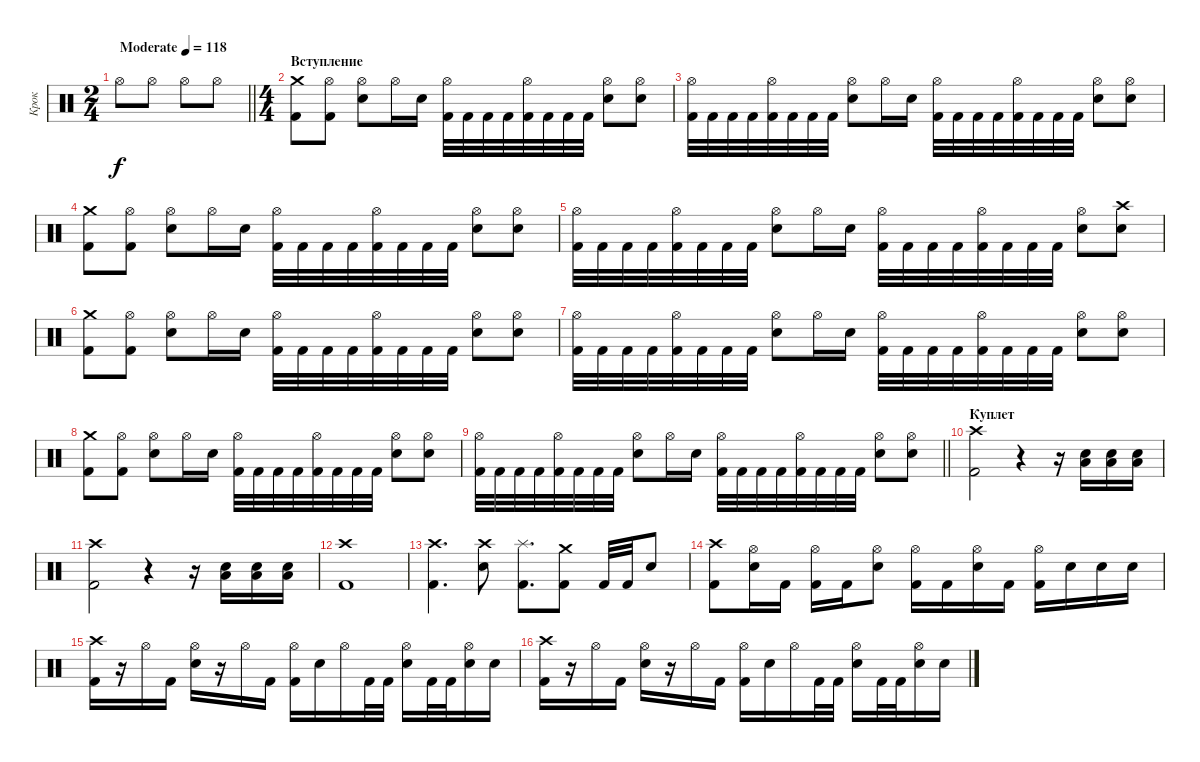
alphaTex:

\track ("Крок" "Крок") {instrument percussion}
\staff {score}
\articulation defaults
\ts (2 4)
\tempo (118 "Moderate")
\clef neutral
\barLineRight lightlight
\ks c "Hi-Hat (open)".8{dy f} "Hi-Hat (open)".8 "Hi-Hat (open)".8 "Hi-Hat (open)".8
|
\ts (4 4)
\section ("" "Вступление")
("Kick (hit) 2" "Crash medium (hit)").8 ("Kick (hit) 2" "Hi-Hat (open)").8 ("Electric Snare (hit)" "Hi-Hat (open)").8 "Hi-Hat (open)".16 "Electric Snare (hit)".16 ("Kick (hit) 2" "Hi-Hat (open)").32 "Kick (hit) 2".32 "Kick (hit) 2".32 "Kick (hit) 2".32 ("Kick (hit) 2" "Hi-Hat (open)").32 "Kick (hit) 2".32 "Kick (hit) 2".32 "Kick (hit) 2".32 ("Electric Snare (hit)" "Hi-Hat (open)").8 ("Electric Snare (hit)" "Hi-Hat (open)").8 |
("Kick (hit) 2" "Hi-Hat (open)").32 "Kick (hit) 2".32 "Kick (hit) 2".32 "Kick (hit) 2".32 ("Kick (hit) 2" "Hi-Hat (open)").32 "Kick (hit) 2".32 "Kick (hit) 2".32 "Kick (hit) 2".32 ("Electric Snare (hit)" "Hi-Hat (open)").8 "Hi-Hat (open)".16 "Electric Snare (hit)".16 ("Kick (hit) 2" "Hi-Hat (open)").32 "Kick (hit) 2".32 "Kick (hit) 2".32 "Kick (hit) 2".32 ("Kick (hit) 2" "Hi-Hat (open)").32 "Kick (hit) 2".32 "Kick (hit) 2".32 "Kick (hit) 2".32 ("Electric Snare (hit)" "Hi-Hat (open)").8 ("Electric Snare (hit)" "Hi-Hat (open)").8 |
("Kick (hit) 2" "Crash medium (hit)").8 ("Kick (hit) 2" "Hi-Hat (open)").8 ("Electric Snare (hit)" "Hi-Hat (open)").8 "Hi-Hat (open)".16 "Electric Snare (hit)".16 ("Kick (hit) 2" "Hi-Hat (open)").32 "Kick (hit) 2".32 "Kick (hit) 2".32 "Kick (hit) 2".32 ("Kick (hit) 2" "Hi-Hat (open)").32 "Kick (hit) 2".32 "Kick (hit) 2".32 "Kick (hit) 2".32 ("Electric Snare (hit)" "Hi-Hat (open)").8 ("Electric Snare (hit)" "Hi-Hat (open)").8 |
("Kick (hit) 2" "Hi-Hat (open)").32 "Kick (hit) 2".32 "Kick (hit) 2".32 "Kick (hit) 2".32 ("Kick (hit) 2" "Hi-Hat (open)").32 "Kick (hit) 2".32 "Kick (hit) 2".32 "Kick (hit) 2".32 ("Electric Snare (hit)" "Hi-Hat (open)").8 "Hi-Hat (open)".16 "Electric Snare (hit)".16 ("Kick (hit) 2" "Hi-Hat (open)").32 "Kick (hit) 2".32 "Kick (hit) 2".32 "Kick (hit) 2".32 ("Kick (hit) 2" "Hi-Hat (open)").32 "Kick (hit) 2".32 "Kick (hit) 2".32 "Kick (hit) 2".32 ("Electric Snare (hit)" "Hi-Hat (open)").8 ("Electric Snare (hit)" "Crash high (hit)").8 |
("Kick (hit) 2" "Crash medium (hit)").8 ("Kick (hit) 2" "Hi-Hat (open)").8 ("Electric Snare (hit)" "Hi-Hat (open)").8 "Hi-Hat (open)".16 "Electric Snare (hit)".16 ("Kick (hit) 2" "Hi-Hat (open)").32 "Kick (hit) 2".32 "Kick (hit) 2".32 "Kick (hit) 2".32 ("Kick (hit) 2" "Hi-Hat (open)").32 "Kick (hit) 2".32 "Kick (hit) 2".32 "Kick (hit) 2".32 ("Electric Snare (hit)" "Hi-Hat (open)").8 ("Electric Snare (hit)" "Hi-Hat (open)").8 |
("Kick (hit) 2" "Hi-Hat (open)").32 "Kick (hit) 2".32 "Kick (hit) 2".32 "Kick (hit) 2".32 ("Kick (hit) 2" "Hi-Hat (open)").32 "Kick (hit) 2".32 "Kick (hit) 2".32 "Kick (hit) 2".32 ("Electric Snare (hit)" "Hi-Hat (open)").8 "Hi-Hat (open)".16 "Electric Snare (hit)".16 ("Kick (hit) 2" "Hi-Hat (open)").32 "Kick (hit) 2".32 "Kick (hit) 2".32 "Kick (hit) 2".32 ("Kick (hit) 2" "Hi-Hat (open)").32 "Kick (hit) 2".32 "Kick (hit) 2".32 "Kick (hit) 2".32 ("Electric Snare (hit)" "Hi-Hat (open)").8 ("Electric Snare (hit)" "Hi-Hat (open)").8 |
("Kick (hit) 2" "Crash medium (hit)").8 ("Kick (hit) 2" "Hi-Hat (open)").8 ("Electric Snare (hit)" "Hi-Hat (open)").8 "Hi-Hat (open)".16 "Electric Snare (hit)".16 ("Kick (hit) 2" "Hi-Hat (open)").32 "Kick (hit) 2".32 "Kick (hit) 2".32 "Kick (hit) 2".32 ("Kick (hit) 2" "Hi-Hat (open)").32 "Kick (hit) 2".32 "Kick (hit) 2".32 "Kick (hit) 2".32 ("Electric Snare (hit)" "Hi-Hat (open)").8 ("Electric Snare (hit)" "Hi-Hat (open)").8 |
\barLineRight lightlight
("Kick (hit) 2" "Hi-Hat (open)").32 "Kick (hit) 2".32 "Kick (hit) 2".32 "Kick (hit) 2".32 ("Kick (hit) 2" "Hi-Hat (open)").32 "Kick (hit) 2".32 "Kick (hit) 2".32 "Kick (hit) 2".32 ("Electric Snare (hit)" "Hi-Hat (open)").8 "Hi-Hat (open)".16 "Electric Snare (hit)".16 ("Kick (hit) 2" "Hi-Hat (open)").32 "Kick (hit) 2".32 "Kick (hit) 2".32 "Kick (hit) 2".32 ("Kick (hit) 2" "Hi-Hat (open)").32 "Kick (hit) 2".32 "Kick (hit) 2".32 "Kick (hit) 2".32 ("Electric Snare (hit)" "Hi-Hat (open)").8 ("Electric Snare (hit)" "Hi-Hat (open)").8 |
\section ("" "Куплет")
("Crash high (hit)" "Kick (hit) 2").2 r.4 r.16 ("Electric Snare (hit)" "Low Floor Tom (hit)").16 ("Electric Snare (hit)" "Low Floor Tom (hit)").16 ("Electric Snare (hit)" "Low Floor Tom (hit)").16 |
("Crash high (hit)" "Kick (hit) 2").2 r.4 r.16 ("Electric Snare (hit)" "Low Floor Tom (hit)").16 ("Electric Snare (hit)" "Low Floor Tom (hit)").16 ("Electric Snare (hit)" "Low Floor Tom (hit)").16 |
("Crash high (hit)" "Kick (hit) 2").1 |
("Kick (hit) 2" "Crash high (hit)").4{d} ("Electric Snare (hit)" "Crash high (hit)").8 ("Kick (hit) 2" "Splash (hit)").8{d} ("Kick (hit) 2" "Crash medium (hit)").8 "Kick (hit) 2".32 "Kick (hit) 2".32 "Electric Snare (hit)".8 |
("Kick (hit) 2" "Crash high (hit)").8 ("Electric Snare (hit)" "Hi-Hat (open)").16 "Kick (hit) 2".16 ("Kick (hit) 2" "Hi-Hat (open)").16 "Kick (hit) 2".16 ("Electric Snare (hit)" "Hi-Hat (open)").8 ("Kick (hit) 2" "Hi-Hat (open)").16 "Kick (hit) 2".16 ("Electric Snare (hit)" "Hi-Hat (open)").16 "Kick (hit) 2".16 ("Kick (hit) 2" "Hi-Hat (open)").16 "Electric Snare (hit)".16 "Electric Snare (hit)".16 "Electric Snare (hit)".16 |
("Kick (hit) 2" "Crash high (hit)").16 r.16 "Hi-Hat (open)".16 "Kick (hit) 2".16 ("Electric Snare (hit)" "Hi-Hat (open)").16 r.16 "Hi-Hat (open)".16 "Kick (hit) 2".16 ("Kick (hit) 2" "Hi-Hat (open)").16 "Electric Snare (hit)".16 "Hi-Hat (open)".16 "Kick (hit) 2".32 "Kick (hit) 2".32 ("Electric Snare (hit)" "Hi-Hat (open)").16 "Kick (hit) 2".32 "Kick (hit) 2".32 ("Electric Snare (hit)" "Hi-Hat (open)").16 "Electric Snare (hit)".16 |
("Kick (hit) 2" "Crash high (hit)").16 r.16 "Hi-Hat (open)".16 "Kick (hit) 2".16 ("Electric Snare (hit)" "Hi-Hat (open)").16 r.16 "Hi-Hat (open)".16 "Kick (hit) 2".16 ("Kick (hit) 2" "Hi-Hat (open)").16 "Electric Snare (hit)".16 "Hi-Hat (open)".16 "Kick (hit) 2".32 "Kick (hit) 2".32 ("Electric Snare (hit)" "Hi-Hat (open)").16 "Kick (hit) 2".32 "Kick (hit) 2".32 ("Electric Snare (hit)" "Hi-Hat (open)").16 "Electric Snare (hit)".16
